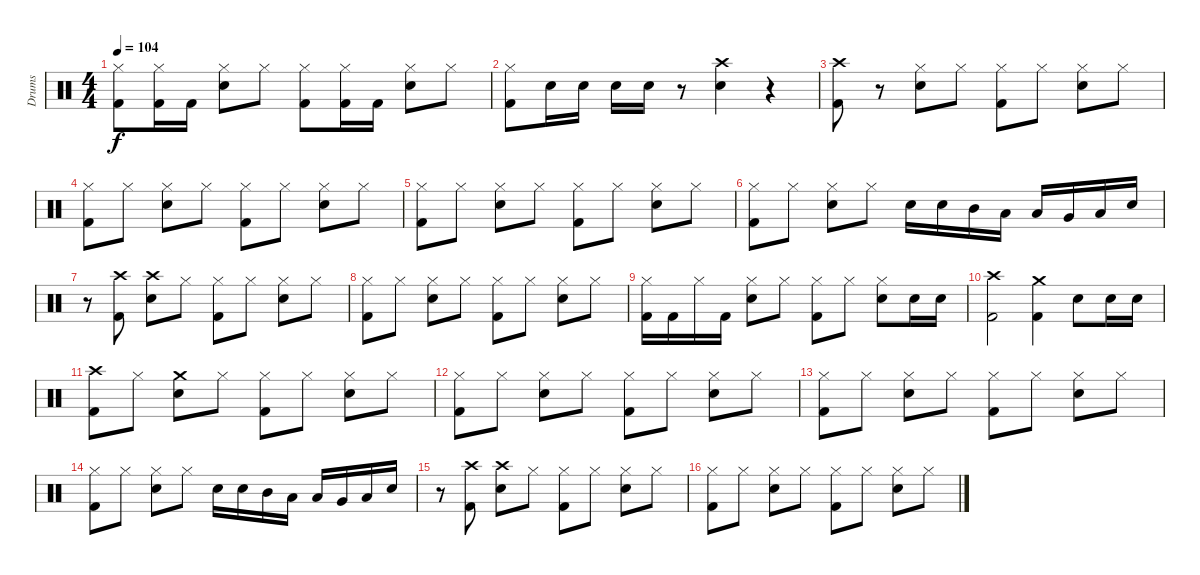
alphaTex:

\track ("Drums" "Drums") {instrument percussion}
\staff {score}
\articulation defaults
\ts (4 4)
\tempo 104
\clef neutral
\ks c
("Hi-Hat (closed)" "Kick (hit) 2").8{dy f} ("Kick (hit) 2" "Hi-Hat (closed)").16 "Kick (hit) 2".16 ("Hi-Hat (closed)" "Snare (hit) 2").8 "Hi-Hat (closed)".8 ("Hi-Hat (closed)" "Kick (hit) 2").8 ("Kick (hit) 2" "Hi-Hat (closed)").16 "Kick (hit) 2".16 ("Hi-Hat (closed)" "Snare (hit) 2").8 "Hi-Hat (closed)".8 |
("Kick (hit) 2" "Hi-Hat (closed)").8 "Snare (hit) 2".16 "Snare (hit) 2".16 "Snare (hit) 2".16 "Snare (hit) 2".16 r.8 ("Crash high (hit)" "Snare (hit) 2").4 r.4 |
("Kick (hit) 2" "Crash high (hit)").8 r.8 ("Hi-Hat (closed)" "Snare (hit) 2").8 "Hi-Hat (closed)".8 ("Hi-Hat (closed)" "Kick (hit) 2").8 "Hi-Hat (closed)".8 ("Snare (hit) 2" "Hi-Hat (closed)").8 "Hi-Hat (closed)".8 |
("Kick (hit) 2" "Hi-Hat (closed)").8 "Hi-Hat (closed)".8 ("Hi-Hat (closed)" "Snare (hit) 2").8 "Hi-Hat (closed)".8 ("Hi-Hat (closed)" "Kick (hit) 2").8 "Hi-Hat (closed)".8 ("Snare (hit) 2" "Hi-Hat (closed)").8 "Hi-Hat (closed)".8 |
("Hi-Hat (closed)" "Kick (hit) 2").8 "Hi-Hat (closed)".8 ("Hi-Hat (closed)" "Snare (hit) 2").8 "Hi-Hat (closed)".8 ("Hi-Hat (closed)" "Kick (hit) 2").8 "Hi-Hat (closed)".8 ("Hi-Hat (closed)" "Snare (hit) 2").8 "Hi-Hat (closed)".8 |
("Kick (hit) 2" "Hi-Hat (closed)").8 "Hi-Hat (closed)".8 ("Snare (hit) 2" "Hi-Hat (closed)").8 "Hi-Hat (closed)".8 "Snare (hit) 2".16 "Snare (hit) 2".16 "Mid Tom (hit)".16 "Low Tom (hit)".16 "Low Tom (hit)".16 "Very Low Tom (hit)".16 "Low Floor Tom (hit)".16 "Snare (hit) 2".16 |
r.8 ("Crash high (hit)" "Kick (hit) 2").8 ("Crash high (hit)" "Snare (hit) 2").8 "Hi-Hat (closed)".8 ("Hi-Hat (closed)" "Kick (hit) 2").8 "Hi-Hat (closed)".8 ("Hi-Hat (closed)" "Snare (hit) 2").8 "Hi-Hat (closed)".8 |
("Kick (hit) 2" "Hi-Hat (closed)").8 "Hi-Hat (closed)".8 ("Hi-Hat (closed)" "Snare (hit) 2").8 "Hi-Hat (closed)".8 ("Hi-Hat (closed)" "Kick (hit) 2").8 "Hi-Hat (closed)".8 ("Hi-Hat (closed)" "Snare (hit) 2").8 "Hi-Hat (closed)".8 |
("Hi-Hat (closed)" "Kick (hit) 2").16 "Kick (hit) 2".16 "Hi-Hat (closed)".16 "Kick (hit) 2".16 ("Snare (hit) 2" "Hi-Hat (closed)").8 "Hi-Hat (closed)".8 ("Hi-Hat (closed)" "Kick (hit) 2").8 "Hi-Hat (closed)".8 ("Snare (hit) 2" "Hi-Hat (closed)").8 "Snare (hit) 2".16 "Snare (hit) 2".16 |
("Kick (hit) 2" "Crash high (hit)").2 ("Crash medium (hit)" "Kick (hit) 2").4 "Snare (hit) 2".8 "Snare (hit) 2".16 "Snare (hit) 2".16 |
("Kick (hit) 2" "Crash high (hit)").8 "Hi-Hat (closed)".8 ("Snare (hit) 2" "Crash medium (hit)").8 "Hi-Hat (closed)".8 ("Kick (hit) 2" "Hi-Hat (closed)").8 "Hi-Hat (closed)".8 ("Snare (hit) 2" "Hi-Hat (closed)").8 "Hi-Hat (closed)".8 |
("Kick (hit) 2" "Hi-Hat (closed)").8 "Hi-Hat (closed)".8 ("Hi-Hat (closed)" "Snare (hit) 2").8 "Hi-Hat (closed)".8 ("Hi-Hat (closed)" "Kick (hit) 2").8 "Hi-Hat (closed)".8 ("Snare (hit) 2" "Hi-Hat (closed)").8 "Hi-Hat (closed)".8 |
("Kick (hit) 2" "Hi-Hat (closed)").8 "Hi-Hat (closed)".8 ("Hi-Hat (closed)" "Snare (hit) 2").8 "Hi-Hat (closed)".8 ("Hi-Hat (closed)" "Kick (hit) 2").8 "Hi-Hat (closed)".8 ("Snare (hit) 2" "Hi-Hat (closed)").8 "Hi-Hat (closed)".8 |
("Kick (hit) 2" "Hi-Hat (closed)").8 "Hi-Hat (closed)".8 ("Snare (hit) 2" "Hi-Hat (closed)").8 "Hi-Hat (closed)".8 "Snare (hit) 2".16 "Snare (hit) 2".16 "Mid Tom (hit)".16 "Low Tom (hit)".16 "Low Tom (hit)".16 "Very Low Tom (hit)".16 "Low Floor Tom (hit)".16 "Snare (hit) 2".16 |
r.8 ("Crash high (hit)" "Kick (hit) 2").8 ("Snare (hit) 2" "Crash high (hit)").8 "Hi-Hat (closed)".8 ("Hi-Hat (closed)" "Kick (hit) 2").8 "Hi-Hat (closed)".8 ("Snare (hit) 2" "Hi-Hat (closed)").8 "Hi-Hat (closed)".8 |
("Kick (hit) 2" "Hi-Hat (closed)").8 "Hi-Hat (closed)".8 ("Snare (hit) 2" "Hi-Hat (closed)").8 "Hi-Hat (closed)".8 ("Hi-Hat (closed)" "Kick (hit) 2").8 "Hi-Hat (closed)".8 ("Snare (hit) 2" "Hi-Hat (closed)").8 "Hi-Hat (closed)".8
